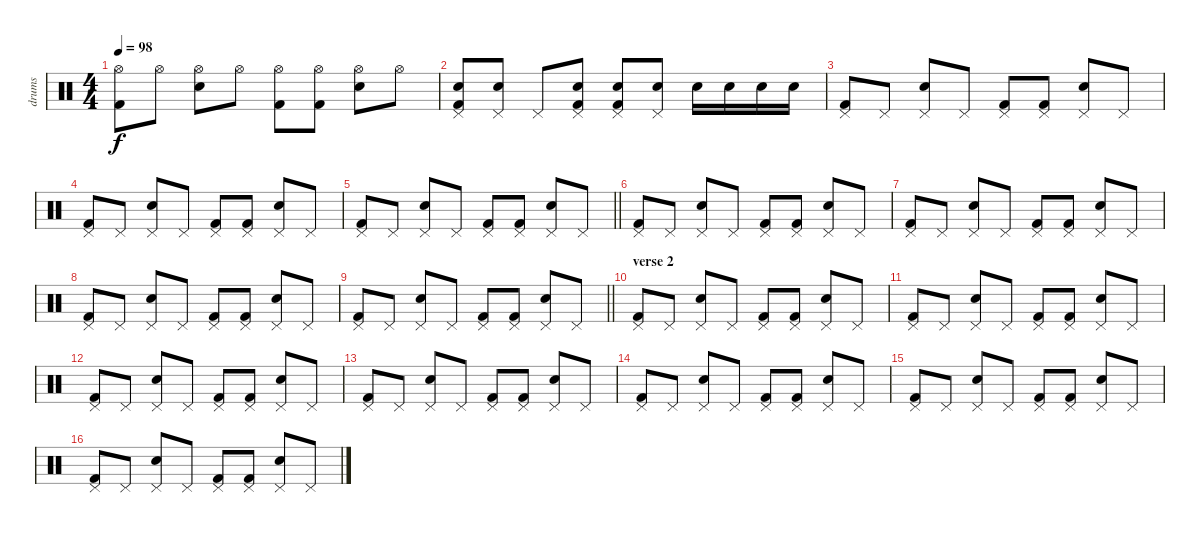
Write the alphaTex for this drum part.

\track ("drums" "drums") {instrument percussion}
\staff {score}
\articulation defaults
\ts (4 4)
\tempo 98
\clef neutral
\ks c
("Kick (hit) 2" "Hi-Hat (open)").8{dy f} "Hi-Hat (open)".8 ("Electric Snare (hit)" "Hi-Hat (open)").8 "Hi-Hat (open)".8 ("Kick (hit) 2" "Hi-Hat (open)").8 ("Kick (hit) 2" "Hi-Hat (open)").8 ("Electric Snare (hit)" "Hi-Hat (open)").8 "Hi-Hat (open)".8 |
("Kick (hit) 2" "Electric Snare (hit)" "Pedal Hi-Hat (hit)").8 ("Electric Snare (hit)" "Pedal Hi-Hat (hit)").8 "Pedal Hi-Hat (hit)".8 ("Kick (hit) 2" "Electric Snare (hit)" "Pedal Hi-Hat (hit)").8 ("Kick (hit) 2" "Electric Snare (hit)" "Pedal Hi-Hat (hit)").8 ("Electric Snare (hit)" "Pedal Hi-Hat (hit)").8 "Electric Snare (hit)".16 "Electric Snare (hit)".16 "Electric Snare (hit)".16 "Electric Snare (hit)".16 |
("Kick (hit) 2" "Pedal Hi-Hat (hit)").8 "Pedal Hi-Hat (hit)".8 ("Electric Snare (hit)" "Pedal Hi-Hat (hit)").8 "Pedal Hi-Hat (hit)".8 ("Kick (hit) 2" "Pedal Hi-Hat (hit)").8 ("Kick (hit) 2" "Pedal Hi-Hat (hit)").8 ("Electric Snare (hit)" "Pedal Hi-Hat (hit)").8 "Pedal Hi-Hat (hit)".8 |
("Kick (hit) 2" "Pedal Hi-Hat (hit)").8 "Pedal Hi-Hat (hit)".8 ("Electric Snare (hit)" "Pedal Hi-Hat (hit)").8 "Pedal Hi-Hat (hit)".8 ("Kick (hit) 2" "Pedal Hi-Hat (hit)").8 ("Kick (hit) 2" "Pedal Hi-Hat (hit)").8 ("Electric Snare (hit)" "Pedal Hi-Hat (hit)").8 "Pedal Hi-Hat (hit)".8 |
\barLineRight lightlight
("Kick (hit) 2" "Pedal Hi-Hat (hit)").8 "Pedal Hi-Hat (hit)".8 ("Electric Snare (hit)" "Pedal Hi-Hat (hit)").8 "Pedal Hi-Hat (hit)".8 ("Kick (hit) 2" "Pedal Hi-Hat (hit)").8 ("Kick (hit) 2" "Pedal Hi-Hat (hit)").8 ("Electric Snare (hit)" "Pedal Hi-Hat (hit)").8 "Pedal Hi-Hat (hit)".8 |
("Kick (hit) 2" "Pedal Hi-Hat (hit)").8 "Pedal Hi-Hat (hit)".8 ("Electric Snare (hit)" "Pedal Hi-Hat (hit)").8 "Pedal Hi-Hat (hit)".8 ("Kick (hit) 2" "Pedal Hi-Hat (hit)").8 ("Kick (hit) 2" "Pedal Hi-Hat (hit)").8 ("Electric Snare (hit)" "Pedal Hi-Hat (hit)").8 "Pedal Hi-Hat (hit)".8 |
("Kick (hit) 2" "Pedal Hi-Hat (hit)").8 "Pedal Hi-Hat (hit)".8 ("Electric Snare (hit)" "Pedal Hi-Hat (hit)").8 "Pedal Hi-Hat (hit)".8 ("Kick (hit) 2" "Pedal Hi-Hat (hit)").8 ("Kick (hit) 2" "Pedal Hi-Hat (hit)").8 ("Electric Snare (hit)" "Pedal Hi-Hat (hit)").8 "Pedal Hi-Hat (hit)".8 |
("Kick (hit) 2" "Pedal Hi-Hat (hit)").8 "Pedal Hi-Hat (hit)".8 ("Electric Snare (hit)" "Pedal Hi-Hat (hit)").8 "Pedal Hi-Hat (hit)".8 ("Kick (hit) 2" "Pedal Hi-Hat (hit)").8 ("Kick (hit) 2" "Pedal Hi-Hat (hit)").8 ("Electric Snare (hit)" "Pedal Hi-Hat (hit)").8 "Pedal Hi-Hat (hit)".8 |
\barLineRight lightlight
("Kick (hit) 2" "Pedal Hi-Hat (hit)").8 "Pedal Hi-Hat (hit)".8 ("Electric Snare (hit)" "Pedal Hi-Hat (hit)").8 "Pedal Hi-Hat (hit)".8 ("Kick (hit) 2" "Pedal Hi-Hat (hit)").8 ("Kick (hit) 2" "Pedal Hi-Hat (hit)").8 ("Electric Snare (hit)" "Pedal Hi-Hat (hit)").8 "Pedal Hi-Hat (hit)".8 |
\section ("" "verse 2")
("Kick (hit) 2" "Pedal Hi-Hat (hit)").8 "Pedal Hi-Hat (hit)".8 ("Electric Snare (hit)" "Pedal Hi-Hat (hit)").8 "Pedal Hi-Hat (hit)".8 ("Kick (hit) 2" "Pedal Hi-Hat (hit)").8 ("Kick (hit) 2" "Pedal Hi-Hat (hit)").8 ("Electric Snare (hit)" "Pedal Hi-Hat (hit)").8 "Pedal Hi-Hat (hit)".8 |
("Kick (hit) 2" "Pedal Hi-Hat (hit)").8 "Pedal Hi-Hat (hit)".8 ("Electric Snare (hit)" "Pedal Hi-Hat (hit)").8 "Pedal Hi-Hat (hit)".8 ("Kick (hit) 2" "Pedal Hi-Hat (hit)").8 ("Kick (hit) 2" "Pedal Hi-Hat (hit)").8 ("Electric Snare (hit)" "Pedal Hi-Hat (hit)").8 "Pedal Hi-Hat (hit)".8 |
("Kick (hit) 2" "Pedal Hi-Hat (hit)").8 "Pedal Hi-Hat (hit)".8 ("Electric Snare (hit)" "Pedal Hi-Hat (hit)").8 "Pedal Hi-Hat (hit)".8 ("Kick (hit) 2" "Pedal Hi-Hat (hit)").8 ("Kick (hit) 2" "Pedal Hi-Hat (hit)").8 ("Electric Snare (hit)" "Pedal Hi-Hat (hit)").8 "Pedal Hi-Hat (hit)".8 |
("Kick (hit) 2" "Pedal Hi-Hat (hit)").8 "Pedal Hi-Hat (hit)".8 ("Electric Snare (hit)" "Pedal Hi-Hat (hit)").8 "Pedal Hi-Hat (hit)".8 ("Kick (hit) 2" "Pedal Hi-Hat (hit)").8 ("Kick (hit) 2" "Pedal Hi-Hat (hit)").8 ("Electric Snare (hit)" "Pedal Hi-Hat (hit)").8 "Pedal Hi-Hat (hit)".8 |
("Kick (hit) 2" "Pedal Hi-Hat (hit)").8 "Pedal Hi-Hat (hit)".8 ("Electric Snare (hit)" "Pedal Hi-Hat (hit)").8 "Pedal Hi-Hat (hit)".8 ("Kick (hit) 2" "Pedal Hi-Hat (hit)").8 ("Kick (hit) 2" "Pedal Hi-Hat (hit)").8 ("Electric Snare (hit)" "Pedal Hi-Hat (hit)").8 "Pedal Hi-Hat (hit)".8 |
("Kick (hit) 2" "Pedal Hi-Hat (hit)").8 "Pedal Hi-Hat (hit)".8 ("Electric Snare (hit)" "Pedal Hi-Hat (hit)").8 "Pedal Hi-Hat (hit)".8 ("Kick (hit) 2" "Pedal Hi-Hat (hit)").8 ("Kick (hit) 2" "Pedal Hi-Hat (hit)").8 ("Electric Snare (hit)" "Pedal Hi-Hat (hit)").8 "Pedal Hi-Hat (hit)".8 |
("Kick (hit) 2" "Pedal Hi-Hat (hit)").8 "Pedal Hi-Hat (hit)".8 ("Electric Snare (hit)" "Pedal Hi-Hat (hit)").8 "Pedal Hi-Hat (hit)".8 ("Kick (hit) 2" "Pedal Hi-Hat (hit)").8 ("Kick (hit) 2" "Pedal Hi-Hat (hit)").8 ("Electric Snare (hit)" "Pedal Hi-Hat (hit)").8 "Pedal Hi-Hat (hit)".8
